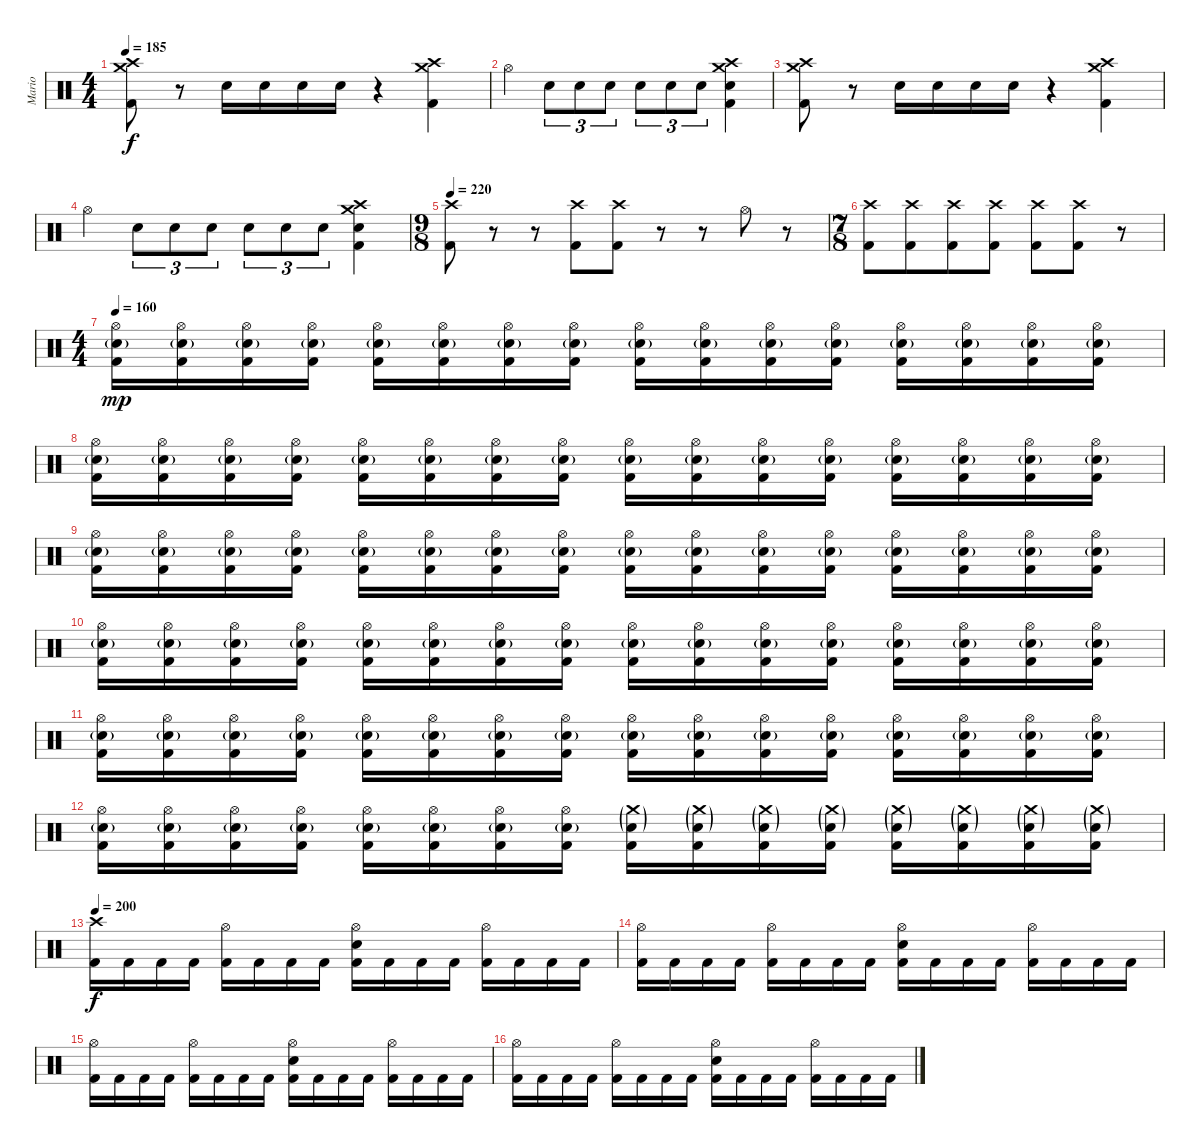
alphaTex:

\track ("Mario" "Mario") {instrument percussion}
\staff {score}
\articulation defaults
\ts (4 4)
\tempo 185
\clef neutral
\ks c
("Crash high (hit)" "Crash medium (hit)" "Kick (hit) 2").8{dy f} r.8 "Electric Snare (hit)".16 "Electric Snare (hit)".16 "Electric Snare (hit)".16 "Electric Snare (hit)".16 r.4 ("Crash high (hit)" "Crash medium (hit)" "Kick (hit) 2").4 |
"Hi-Hat (open)".4 "Electric Snare (hit)".8{tu (3 2)} "Electric Snare (hit)".8{tu (3 2)} "Electric Snare (hit)".8{tu (3 2)} "Electric Snare (hit)".8{tu (3 2)} "Electric Snare (hit)".8{tu (3 2)} "Electric Snare (hit)".8{tu (3 2)} ("Crash high (hit)" "Crash medium (hit)" "Electric Snare (hit)" "Kick (hit) 2").4 |
("Crash high (hit)" "Crash medium (hit)" "Kick (hit) 2").8 r.8 "Electric Snare (hit)".16 "Electric Snare (hit)".16 "Electric Snare (hit)".16 "Electric Snare (hit)".16 r.4 ("Crash high (hit)" "Crash medium (hit)" "Kick (hit) 2").4 |
"Hi-Hat (open)".4 "Electric Snare (hit)".8{tu (3 2)} "Electric Snare (hit)".8{tu (3 2)} "Electric Snare (hit)".8{tu (3 2)} "Electric Snare (hit)".8{tu (3 2)} "Electric Snare (hit)".8{tu (3 2)} "Electric Snare (hit)".8{tu (3 2)} ("Crash high (hit)" "Crash medium (hit)" "Electric Snare (hit)" "Kick (hit) 2").4 |
\ts (9 8)
\tempo 220
("Crash high (hit)" "Kick (hit) 2").8 r.8 r.8 ("Crash high (hit)" "Kick (hit) 2").8 ("Crash high (hit)" "Kick (hit) 2").8 r.8 r.8 "Hi-Hat (open)".8 r.8 |
\ts (7 8)
("Crash high (hit)" "Kick (hit) 2").8 ("Crash high (hit)" "Kick (hit) 2").8 ("Crash high (hit)" "Kick (hit) 2").8 ("Crash high (hit)" "Kick (hit) 2").8 ("Crash high (hit)" "Kick (hit) 2").8 ("Crash high (hit)" "Kick (hit) 2").8 r.8 |
\ts (4 4)
\tempo 160
("Hi-Hat (open)" "Electric Snare (hit)"{g} "Kick (hit) 2").16{dy mp} ("Hi-Hat (open)" "Electric Snare (hit)"{g} "Kick (hit) 2").16 ("Hi-Hat (open)" "Electric Snare (hit)"{g} "Kick (hit) 2").16 ("Hi-Hat (open)" "Electric Snare (hit)"{g} "Kick (hit) 2").16 ("Hi-Hat (open)" "Electric Snare (hit)"{g} "Kick (hit) 2").16 ("Hi-Hat (open)" "Electric Snare (hit)"{g} "Kick (hit) 2").16 ("Hi-Hat (open)" "Electric Snare (hit)"{g} "Kick (hit) 2").16 ("Hi-Hat (open)" "Electric Snare (hit)"{g} "Kick (hit) 2").16 ("Hi-Hat (open)" "Electric Snare (hit)"{g} "Kick (hit) 2").16 ("Hi-Hat (open)" "Electric Snare (hit)"{g} "Kick (hit) 2").16 ("Hi-Hat (open)" "Electric Snare (hit)"{g} "Kick (hit) 2").16 ("Hi-Hat (open)" "Electric Snare (hit)"{g} "Kick (hit) 2").16 ("Hi-Hat (open)" "Electric Snare (hit)"{g} "Kick (hit) 2").16 ("Hi-Hat (open)" "Electric Snare (hit)"{g} "Kick (hit) 2").16 ("Hi-Hat (open)" "Electric Snare (hit)"{g} "Kick (hit) 2").16 ("Hi-Hat (open)" "Electric Snare (hit)"{g} "Kick (hit) 2").16 |
("Hi-Hat (open)" "Electric Snare (hit)"{g} "Kick (hit) 2").16 ("Hi-Hat (open)" "Electric Snare (hit)"{g} "Kick (hit) 2").16 ("Hi-Hat (open)" "Electric Snare (hit)"{g} "Kick (hit) 2").16 ("Hi-Hat (open)" "Electric Snare (hit)"{g} "Kick (hit) 2").16 ("Hi-Hat (open)" "Electric Snare (hit)"{g} "Kick (hit) 2").16 ("Hi-Hat (open)" "Electric Snare (hit)"{g} "Kick (hit) 2").16 ("Hi-Hat (open)" "Electric Snare (hit)"{g} "Kick (hit) 2").16 ("Hi-Hat (open)" "Electric Snare (hit)"{g} "Kick (hit) 2").16 ("Hi-Hat (open)" "Electric Snare (hit)"{g} "Kick (hit) 2").16 ("Hi-Hat (open)" "Electric Snare (hit)"{g} "Kick (hit) 2").16 ("Hi-Hat (open)" "Electric Snare (hit)"{g} "Kick (hit) 2").16 ("Hi-Hat (open)" "Electric Snare (hit)"{g} "Kick (hit) 2").16 ("Hi-Hat (open)" "Electric Snare (hit)"{g} "Kick (hit) 2").16 ("Hi-Hat (open)" "Electric Snare (hit)"{g} "Kick (hit) 2").16 ("Hi-Hat (open)" "Electric Snare (hit)"{g} "Kick (hit) 2").16 ("Hi-Hat (open)" "Electric Snare (hit)"{g} "Kick (hit) 2").16 |
("Hi-Hat (open)" "Electric Snare (hit)"{g} "Kick (hit) 2").16 ("Hi-Hat (open)" "Electric Snare (hit)"{g} "Kick (hit) 2").16 ("Hi-Hat (open)" "Electric Snare (hit)"{g} "Kick (hit) 2").16 ("Hi-Hat (open)" "Electric Snare (hit)"{g} "Kick (hit) 2").16 ("Hi-Hat (open)" "Electric Snare (hit)"{g} "Kick (hit) 2").16 ("Hi-Hat (open)" "Electric Snare (hit)"{g} "Kick (hit) 2").16 ("Hi-Hat (open)" "Electric Snare (hit)"{g} "Kick (hit) 2").16 ("Hi-Hat (open)" "Electric Snare (hit)"{g} "Kick (hit) 2").16 ("Hi-Hat (open)" "Electric Snare (hit)"{g} "Kick (hit) 2").16 ("Hi-Hat (open)" "Electric Snare (hit)"{g} "Kick (hit) 2").16 ("Hi-Hat (open)" "Electric Snare (hit)"{g} "Kick (hit) 2").16 ("Hi-Hat (open)" "Electric Snare (hit)"{g} "Kick (hit) 2").16 ("Hi-Hat (open)" "Electric Snare (hit)"{g} "Kick (hit) 2").16 ("Hi-Hat (open)" "Electric Snare (hit)"{g} "Kick (hit) 2").16 ("Hi-Hat (open)" "Electric Snare (hit)"{g} "Kick (hit) 2").16 ("Hi-Hat (open)" "Electric Snare (hit)"{g} "Kick (hit) 2").16 |
("Hi-Hat (open)" "Electric Snare (hit)"{g} "Kick (hit) 2").16 ("Hi-Hat (open)" "Electric Snare (hit)"{g} "Kick (hit) 2").16 ("Hi-Hat (open)" "Electric Snare (hit)"{g} "Kick (hit) 2").16 ("Hi-Hat (open)" "Electric Snare (hit)"{g} "Kick (hit) 2").16 ("Hi-Hat (open)" "Electric Snare (hit)"{g} "Kick (hit) 2").16 ("Hi-Hat (open)" "Electric Snare (hit)"{g} "Kick (hit) 2").16 ("Hi-Hat (open)" "Electric Snare (hit)"{g} "Kick (hit) 2").16 ("Hi-Hat (open)" "Electric Snare (hit)"{g} "Kick (hit) 2").16 ("Hi-Hat (open)" "Electric Snare (hit)"{g} "Kick (hit) 2").16 ("Hi-Hat (open)" "Electric Snare (hit)"{g} "Kick (hit) 2").16 ("Hi-Hat (open)" "Electric Snare (hit)"{g} "Kick (hit) 2").16 ("Hi-Hat (open)" "Electric Snare (hit)"{g} "Kick (hit) 2").16 ("Hi-Hat (open)" "Electric Snare (hit)"{g} "Kick (hit) 2").16 ("Hi-Hat (open)" "Electric Snare (hit)"{g} "Kick (hit) 2").16 ("Hi-Hat (open)" "Electric Snare (hit)"{g} "Kick (hit) 2").16 ("Hi-Hat (open)" "Electric Snare (hit)"{g} "Kick (hit) 2").16 |
("Hi-Hat (open)" "Electric Snare (hit)"{g} "Kick (hit) 2").16 ("Hi-Hat (open)" "Electric Snare (hit)"{g} "Kick (hit) 2").16 ("Hi-Hat (open)" "Electric Snare (hit)"{g} "Kick (hit) 2").16 ("Hi-Hat (open)" "Electric Snare (hit)"{g} "Kick (hit) 2").16 ("Hi-Hat (open)" "Electric Snare (hit)"{g} "Kick (hit) 2").16 ("Hi-Hat (open)" "Electric Snare (hit)"{g} "Kick (hit) 2").16 ("Hi-Hat (open)" "Electric Snare (hit)"{g} "Kick (hit) 2").16 ("Hi-Hat (open)" "Electric Snare (hit)"{g} "Kick (hit) 2").16 ("Hi-Hat (open)" "Electric Snare (hit)"{g} "Kick (hit) 2").16 ("Hi-Hat (open)" "Electric Snare (hit)"{g} "Kick (hit) 2").16 ("Hi-Hat (open)" "Electric Snare (hit)"{g} "Kick (hit) 2").16 ("Hi-Hat (open)" "Electric Snare (hit)"{g} "Kick (hit) 2").16 ("Hi-Hat (open)" "Electric Snare (hit)"{g} "Kick (hit) 2").16 ("Hi-Hat (open)" "Electric Snare (hit)"{g} "Kick (hit) 2").16 ("Hi-Hat (open)" "Electric Snare (hit)"{g} "Kick (hit) 2").16 ("Hi-Hat (open)" "Electric Snare (hit)"{g} "Kick (hit) 2").16 |
("Hi-Hat (open)" "Electric Snare (hit)"{g} "Kick (hit) 2").16 ("Hi-Hat (open)" "Electric Snare (hit)"{g} "Kick (hit) 2").16 ("Hi-Hat (open)" "Electric Snare (hit)"{g} "Kick (hit) 2").16 ("Hi-Hat (open)" "Electric Snare (hit)"{g} "Kick (hit) 2").16 ("Hi-Hat (open)" "Electric Snare (hit)"{g} "Kick (hit) 2").16 ("Hi-Hat (open)" "Electric Snare (hit)"{g} "Kick (hit) 2").16 ("Hi-Hat (open)" "Electric Snare (hit)"{g} "Kick (hit) 2").16 ("Hi-Hat (open)" "Electric Snare (hit)"{g} "Kick (hit) 2").16 ("Crash medium (hit)"{g} "Electric Snare (hit)"{g} "Kick (hit) 2").16 ("Crash medium (hit)"{g} "Electric Snare (hit)"{g} "Kick (hit) 2").16 ("Crash medium (hit)"{g} "Electric Snare (hit)"{g} "Kick (hit) 2").16 ("Crash medium (hit)"{g} "Electric Snare (hit)"{g} "Kick (hit) 2").16 ("Crash medium (hit)"{g} "Electric Snare (hit)"{g} "Kick (hit) 2").16 ("Crash medium (hit)"{g} "Electric Snare (hit)"{g} "Kick (hit) 2").16 ("Crash medium (hit)"{g} "Electric Snare (hit)"{g} "Kick (hit) 2").16 ("Crash medium (hit)"{g} "Electric Snare (hit)"{g} "Kick (hit) 2").16 |
\tempo 200
("Crash high (hit)" "Kick (hit) 2").16{dy f} "Kick (hit) 2".16 "Kick (hit) 2".16 "Kick (hit) 2".16 ("Hi-Hat (open)" "Kick (hit) 2").16 "Kick (hit) 2".16 "Kick (hit) 2".16 "Kick (hit) 2".16 ("Hi-Hat (open)" "Electric Snare (hit)" "Kick (hit) 2").16 "Kick (hit) 2".16 "Kick (hit) 2".16 "Kick (hit) 2".16 ("Hi-Hat (open)" "Kick (hit) 2").16 "Kick (hit) 2".16 "Kick (hit) 2".16 "Kick (hit) 2".16 |
("Hi-Hat (open)" "Kick (hit) 2").16 "Kick (hit) 2".16 "Kick (hit) 2".16 "Kick (hit) 2".16 ("Hi-Hat (open)" "Kick (hit) 2").16 "Kick (hit) 2".16 "Kick (hit) 2".16 "Kick (hit) 2".16 ("Hi-Hat (open)" "Electric Snare (hit)" "Kick (hit) 2").16 "Kick (hit) 2".16 "Kick (hit) 2".16 "Kick (hit) 2".16 ("Hi-Hat (open)" "Kick (hit) 2").16 "Kick (hit) 2".16 "Kick (hit) 2".16 "Kick (hit) 2".16 |
("Hi-Hat (open)" "Kick (hit) 2").16 "Kick (hit) 2".16 "Kick (hit) 2".16 "Kick (hit) 2".16 ("Hi-Hat (open)" "Kick (hit) 2").16 "Kick (hit) 2".16 "Kick (hit) 2".16 "Kick (hit) 2".16 ("Hi-Hat (open)" "Electric Snare (hit)" "Kick (hit) 2").16 "Kick (hit) 2".16 "Kick (hit) 2".16 "Kick (hit) 2".16 ("Hi-Hat (open)" "Kick (hit) 2").16 "Kick (hit) 2".16 "Kick (hit) 2".16 "Kick (hit) 2".16 |
("Hi-Hat (open)" "Kick (hit) 2").16 "Kick (hit) 2".16 "Kick (hit) 2".16 "Kick (hit) 2".16 ("Hi-Hat (open)" "Kick (hit) 2").16 "Kick (hit) 2".16 "Kick (hit) 2".16 "Kick (hit) 2".16 ("Hi-Hat (open)" "Electric Snare (hit)" "Kick (hit) 2").16 "Kick (hit) 2".16 "Kick (hit) 2".16 "Kick (hit) 2".16 ("Hi-Hat (open)" "Kick (hit) 2").16 "Kick (hit) 2".16 "Kick (hit) 2".16 "Kick (hit) 2".16
